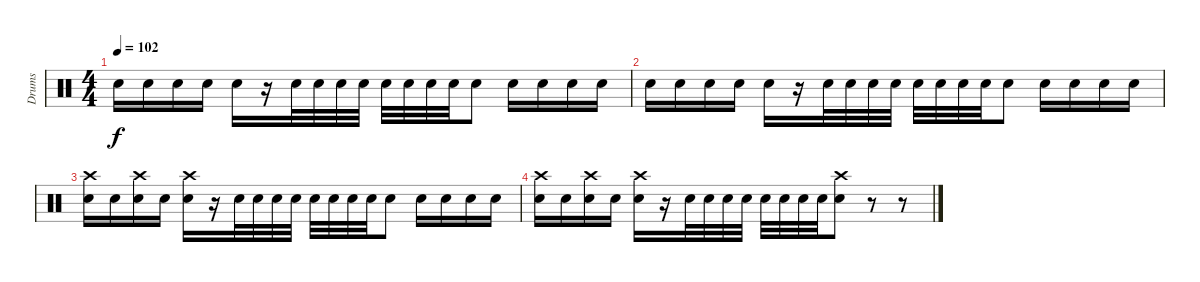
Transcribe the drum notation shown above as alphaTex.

\track ("Drums" "Drums") {instrument percussion}
\staff {score}
\articulation defaults
\ts (4 4)
\tempo 102
\clef neutral
\ks c "Snare (hit) 2".16{dy f} "Snare (hit) 2".16 "Snare (hit) 2".16 "Snare (hit) 2".16 "Snare (hit) 2".16
r.16 "Snare (hit) 2".32 "Snare (hit) 2".32 "Snare (hit) 2".32 "Snare (hit) 2".32 "Snare (hit) 2".32 "Snare (hit) 2".32 "Snare (hit) 2".32 "Snare (hit) 2".32 "Snare (hit) 2".8 "Snare (hit) 2".16 "Snare (hit) 2".16 "Snare (hit) 2".16 "Snare (hit) 2".16 |
"Snare (hit) 2".16 "Snare (hit) 2".16 "Snare (hit) 2".16 "Snare (hit) 2".16 "Snare (hit) 2".16 r.16 "Snare (hit) 2".32 "Snare (hit) 2".32 "Snare (hit) 2".32 "Snare (hit) 2".32 "Snare (hit) 2".32 "Snare (hit) 2".32 "Snare (hit) 2".32 "Snare (hit) 2".32 "Snare (hit) 2".8 "Snare (hit) 2".16 "Snare (hit) 2".16 "Snare (hit) 2".16 "Snare (hit) 2".16 |
("Crash high (hit)" "Snare (hit) 2").16 "Snare (hit) 2".16 ("Crash high (hit)" "Snare (hit) 2").16 "Snare (hit) 2".16 ("Crash high (hit)" "Snare (hit) 2").16 r.16 "Snare (hit) 2".32 "Snare (hit) 2".32 "Snare (hit) 2".32 "Snare (hit) 2".32 "Snare (hit) 2".32 "Snare (hit) 2".32 "Snare (hit) 2".32 "Snare (hit) 2".32 "Snare (hit) 2".8 "Snare (hit) 2".16 "Snare (hit) 2".16 "Snare (hit) 2".16 "Snare (hit) 2".16 |
("Crash high (hit)" "Snare (hit) 2").16 "Snare (hit) 2".16 ("Crash high (hit)" "Snare (hit) 2").16 "Snare (hit) 2".16 ("Crash high (hit)" "Snare (hit) 2").16 r.16 "Snare (hit) 2".32 "Snare (hit) 2".32 "Snare (hit) 2".32 "Snare (hit) 2".32 "Snare (hit) 2".32 "Snare (hit) 2".32 "Snare (hit) 2".32 "Snare (hit) 2".32 ("Crash high (hit)" "Snare (hit) 2").8 r.8 r.8
